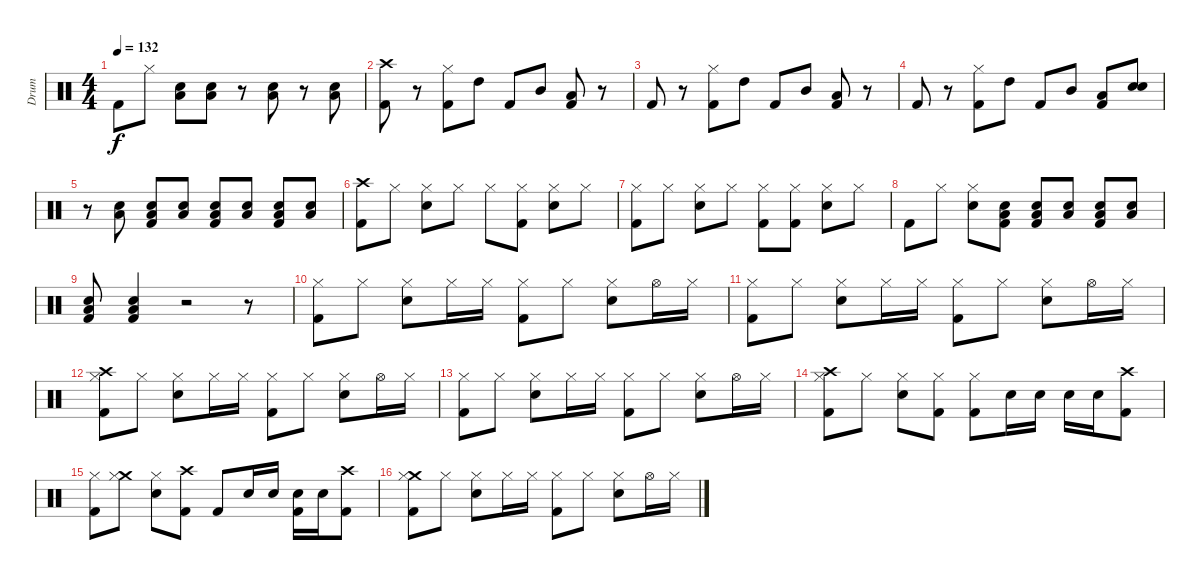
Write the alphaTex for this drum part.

\track ("Drum" "Drum") {instrument percussion}
\staff {score}
\articulation defaults
\ts (4 4)
\tempo 132
\clef neutral
\ks c "Kick (hit) 2".8{dy f} "Hi-Hat (closed)".8
("Snare (hit) 2" "Low Tom (hit)").8 ("Snare (hit) 2" "Low Tom (hit)").8 r.8 ("Snare (hit) 2" "Low Tom (hit)").8 r.8 ("Electric Snare (hit)" "Low Tom (hit)").8 |
("Crash high (hit)" "Kick (hit) 2").8 r.8 ("Hi-Hat (closed)" "Kick (hit) 2").8 "High Tom (hit)".8 "Kick (hit) 2".8 "Mid Tom (hit)".8 ("Low Tom (hit)" "Kick (hit) 2").8 r.8 |
"Kick (hit) 2".8 r.8 ("Hi-Hat (closed)" "Kick (hit) 2").8 "High Tom (hit)".8 "Kick (hit) 2".8 "Mid Tom (hit)".8 ("Low Tom (hit)" "Kick (hit) 2").8 r.8 |
"Kick (hit) 2".8 r.8 ("Hi-Hat (closed)" "Kick (hit) 2").8 "High Tom (hit)".8 "Kick (hit) 2".8 "Mid Tom (hit)".8 ("Low Tom (hit)" "Kick (hit) 2").8 ("Electric Snare (hit)" "Electric Snare (hit)").8{bu 480} |
r.8 ("Low Tom (hit)" "Snare (hit) 2").8 ("Low Tom (hit)" "Snare (hit) 2" "Kick (hit) 2").8 ("Low Tom (hit)" "Snare (hit) 2").8 ("Low Tom (hit)" "Snare (hit) 2" "Kick (hit) 2").8 ("Low Tom (hit)" "Snare (hit) 2").8 ("Low Tom (hit)" "Snare (hit) 2" "Kick (hit) 2").8 ("Low Tom (hit)" "Snare (hit) 2").8 |
("Crash high (hit)" "Kick (hit) 2").8 "Hi-Hat (closed)".8 ("Hi-Hat (closed)" "Snare (hit) 2").8 "Hi-Hat (closed)".8 "Hi-Hat (closed)".8 ("Hi-Hat (closed)" "Kick (hit) 2").8 ("Hi-Hat (closed)" "Snare (hit) 2").8 "Hi-Hat (closed)".8 |
("Hi-Hat (closed)" "Kick (hit) 2").8 "Hi-Hat (closed)".8 ("Hi-Hat (closed)" "Snare (hit) 2").8 "Hi-Hat (closed)".8 ("Hi-Hat (closed)" "Kick (hit) 2").8 ("Hi-Hat (closed)" "Kick (hit) 2").8 ("Hi-Hat (closed)" "Snare (hit) 2").8 "Hi-Hat (closed)".8 |
"Kick (hit) 2".8 "Hi-Hat (closed)".8 ("Hi-Hat (closed)" "Snare (hit) 2").8 ("Low Tom (hit)" "Snare (hit) 2" "Kick (hit) 2").8 ("Low Tom (hit)" "Snare (hit) 2" "Kick (hit) 2").8 ("Low Tom (hit)" "Snare (hit) 2").8 ("Low Tom (hit)" "Snare (hit) 2" "Kick (hit) 2").8 ("Low Tom (hit)" "Snare (hit) 2").8 |
("Snare (hit) 2" "Low Tom (hit)" "Kick (hit) 2").8 ("Snare (hit) 2" "Low Tom (hit)" "Kick (hit) 2").4 r.2 r.8 |
("Hi-Hat (closed)" "Kick (hit) 2").8 "Hi-Hat (closed)".8 ("Hi-Hat (closed)" "Snare (hit) 2").8 "Hi-Hat (closed)".16 "Hi-Hat (closed)".16 ("Hi-Hat (closed)" "Kick (hit) 2").8 "Hi-Hat (closed)".8 ("Hi-Hat (closed)" "Snare (hit) 2").8 "Hi-Hat (open)".16 "Hi-Hat (closed)".16 |
("Hi-Hat (closed)" "Kick (hit) 2").8 "Hi-Hat (closed)".8 ("Hi-Hat (closed)" "Snare (hit) 2").8 "Hi-Hat (closed)".16 "Hi-Hat (closed)".16 ("Hi-Hat (closed)" "Kick (hit) 2").8 "Hi-Hat (closed)".8 ("Hi-Hat (closed)" "Snare (hit) 2").8 "Hi-Hat (open)".16 "Hi-Hat (closed)".16 |
("Crash high (hit)" "Hi-Hat (closed)" "Kick (hit) 2").8 "Hi-Hat (closed)".8 ("Hi-Hat (closed)" "Snare (hit) 2").8 "Hi-Hat (closed)".16 "Hi-Hat (closed)".16 ("Hi-Hat (closed)" "Kick (hit) 2").8 "Hi-Hat (closed)".8 ("Hi-Hat (closed)" "Snare (hit) 2").8 "Hi-Hat (open)".16 "Hi-Hat (closed)".16 |
("Hi-Hat (closed)" "Kick (hit) 2").8 "Hi-Hat (closed)".8 ("Hi-Hat (closed)" "Snare (hit) 2").8 "Hi-Hat (closed)".16 "Hi-Hat (closed)".16 ("Hi-Hat (closed)" "Kick (hit) 2").8 "Hi-Hat (closed)".8 ("Hi-Hat (closed)" "Snare (hit) 2").8 "Hi-Hat (open)".16 "Hi-Hat (closed)".16 |
("Crash high (hit)" "Hi-Hat (closed)" "Kick (hit) 2").8 "Hi-Hat (closed)".8 ("Hi-Hat (closed)" "Snare (hit) 2").8 ("Hi-Hat (closed)" "Kick (hit) 2").8 ("Hi-Hat (closed)" "Kick (hit) 2").8 "Snare (hit) 2".16 "Snare (hit) 2".16 "Snare (hit) 2".16 "Snare (hit) 2".16 ("Crash high (hit)" "Kick (hit) 2").8 |
("Hi-Hat (closed)" "Kick (hit) 2").8 ("Crash medium (hit)" "Hi-Hat (closed)").8 ("Hi-Hat (closed)" "Electric Snare (hit)").8 ("Crash high (hit)" "Kick (hit) 2").8 "Kick (hit) 2".8 "Snare (hit) 2".16 "Snare (hit) 2".16 ("Snare (hit) 2" "Kick (hit) 2").16 "Snare (hit) 2".16 ("Crash high (hit)" "Kick (hit) 2").8 |
("Crash medium (hit)" "Hi-Hat (closed)" "Kick (hit) 2").8 "Hi-Hat (closed)".8 ("Hi-Hat (closed)" "Snare (hit) 2").8 "Hi-Hat (closed)".16 "Hi-Hat (closed)".16 ("Hi-Hat (closed)" "Kick (hit) 2").8 "Hi-Hat (closed)".8 ("Hi-Hat (closed)" "Snare (hit) 2").8 "Hi-Hat (open)".16 "Hi-Hat (closed)".16
